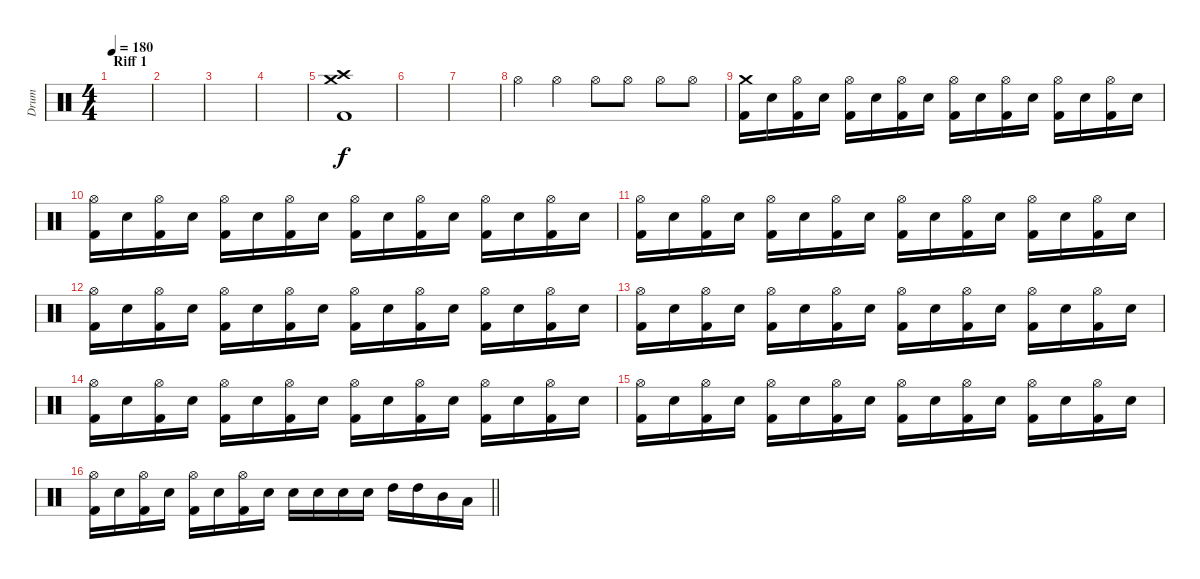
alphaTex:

\track ("Drum" "Drum") {instrument percussion}
\staff {score}
\articulation defaults
\ts (4 4)
\section ("" "Riff 1")
\tempo 180
\clef neutral
\ks c
|
|
|
|
("Crash medium (hit)" "Crash high (hit)" "Kick (hit) 2").1 |
|
|
"Hi-Hat (open)".4 "Hi-Hat (open)".4 "Hi-Hat (open)".8 "Hi-Hat (open)".8 "Hi-Hat (open)".8 "Hi-Hat (open)".8 |
("Crash medium (hit)" "Kick (hit) 2").16 "Electric Snare (hit)".16 ("Hi-Hat (open)" "Kick (hit) 2").16 "Electric Snare (hit)".16 ("Hi-Hat (open)" "Kick (hit) 2").16 "Electric Snare (hit)".16 ("Hi-Hat (open)" "Kick (hit) 2").16 "Electric Snare (hit)".16 ("Hi-Hat (open)" "Kick (hit) 2").16 "Electric Snare (hit)".16 ("Hi-Hat (open)" "Kick (hit) 2").16 "Electric Snare (hit)".16 ("Hi-Hat (open)" "Kick (hit) 2").16 "Electric Snare (hit)".16 ("Hi-Hat (open)" "Kick (hit) 2").16 "Electric Snare (hit)".16 |
("Hi-Hat (open)" "Kick (hit) 2").16 "Electric Snare (hit)".16 ("Hi-Hat (open)" "Kick (hit) 2").16 "Electric Snare (hit)".16 ("Hi-Hat (open)" "Kick (hit) 2").16 "Electric Snare (hit)".16 ("Hi-Hat (open)" "Kick (hit) 2").16 "Electric Snare (hit)".16 ("Hi-Hat (open)" "Kick (hit) 2").16 "Electric Snare (hit)".16 ("Hi-Hat (open)" "Kick (hit) 2").16 "Electric Snare (hit)".16 ("Hi-Hat (open)" "Kick (hit) 2").16 "Electric Snare (hit)".16 ("Hi-Hat (open)" "Kick (hit) 2").16 "Electric Snare (hit)".16 |
("Hi-Hat (open)" "Kick (hit) 2").16 "Electric Snare (hit)".16 ("Hi-Hat (open)" "Kick (hit) 2").16 "Electric Snare (hit)".16 ("Hi-Hat (open)" "Kick (hit) 2").16 "Electric Snare (hit)".16 ("Hi-Hat (open)" "Kick (hit) 2").16 "Electric Snare (hit)".16 ("Hi-Hat (open)" "Kick (hit) 2").16 "Electric Snare (hit)".16 ("Hi-Hat (open)" "Kick (hit) 2").16 "Electric Snare (hit)".16 ("Hi-Hat (open)" "Kick (hit) 2").16 "Electric Snare (hit)".16 ("Hi-Hat (open)" "Kick (hit) 2").16 "Electric Snare (hit)".16 |
("Hi-Hat (open)" "Kick (hit) 2").16 "Electric Snare (hit)".16 ("Hi-Hat (open)" "Kick (hit) 2").16 "Electric Snare (hit)".16 ("Hi-Hat (open)" "Kick (hit) 2").16 "Electric Snare (hit)".16 ("Hi-Hat (open)" "Kick (hit) 2").16 "Electric Snare (hit)".16 ("Hi-Hat (open)" "Kick (hit) 2").16 "Electric Snare (hit)".16 ("Hi-Hat (open)" "Kick (hit) 2").16 "Electric Snare (hit)".16 ("Hi-Hat (open)" "Kick (hit) 2").16 "Electric Snare (hit)".16 ("Hi-Hat (open)" "Kick (hit) 2").16 "Electric Snare (hit)".16 |
("Hi-Hat (open)" "Kick (hit) 2").16 "Electric Snare (hit)".16 ("Hi-Hat (open)" "Kick (hit) 2").16 "Electric Snare (hit)".16 ("Hi-Hat (open)" "Kick (hit) 2").16 "Electric Snare (hit)".16 ("Hi-Hat (open)" "Kick (hit) 2").16 "Electric Snare (hit)".16 ("Hi-Hat (open)" "Kick (hit) 2").16 "Electric Snare (hit)".16 ("Hi-Hat (open)" "Kick (hit) 2").16 "Electric Snare (hit)".16 ("Hi-Hat (open)" "Kick (hit) 2").16 "Electric Snare (hit)".16 ("Hi-Hat (open)" "Kick (hit) 2").16 "Electric Snare (hit)".16 |
("Hi-Hat (open)" "Kick (hit) 2").16 "Electric Snare (hit)".16 ("Hi-Hat (open)" "Kick (hit) 2").16 "Electric Snare (hit)".16 ("Hi-Hat (open)" "Kick (hit) 2").16 "Electric Snare (hit)".16 ("Hi-Hat (open)" "Kick (hit) 2").16 "Electric Snare (hit)".16 ("Hi-Hat (open)" "Kick (hit) 2").16 "Electric Snare (hit)".16 ("Hi-Hat (open)" "Kick (hit) 2").16 "Electric Snare (hit)".16 ("Hi-Hat (open)" "Kick (hit) 2").16 "Electric Snare (hit)".16 ("Hi-Hat (open)" "Kick (hit) 2").16 "Electric Snare (hit)".16 |
("Hi-Hat (open)" "Kick (hit) 2").16 "Electric Snare (hit)".16 ("Hi-Hat (open)" "Kick (hit) 2").16 "Electric Snare (hit)".16 ("Hi-Hat (open)" "Kick (hit) 2").16 "Electric Snare (hit)".16 ("Hi-Hat (open)" "Kick (hit) 2").16 "Electric Snare (hit)".16 ("Hi-Hat (open)" "Kick (hit) 2").16 "Electric Snare (hit)".16 ("Hi-Hat (open)" "Kick (hit) 2").16 "Electric Snare (hit)".16 ("Hi-Hat (open)" "Kick (hit) 2").16 "Electric Snare (hit)".16 ("Hi-Hat (open)" "Kick (hit) 2").16 "Electric Snare (hit)".16 |
\barLineRight lightlight
("Hi-Hat (open)" "Kick (hit) 2").16 "Electric Snare (hit)".16 ("Hi-Hat (open)" "Kick (hit) 2").16 "Electric Snare (hit)".16 ("Hi-Hat (open)" "Kick (hit) 2").16 "Electric Snare (hit)".16 ("Hi-Hat (open)" "Kick (hit) 2").16 "Electric Snare (hit)".16 "Electric Snare (hit)".16 "Electric Snare (hit)".16 "Electric Snare (hit)".16 "Electric Snare (hit)".16 "High Tom (hit)".16 "High Tom (hit)".16 "Mid Tom (hit)".16 "Low Tom (hit)".16
